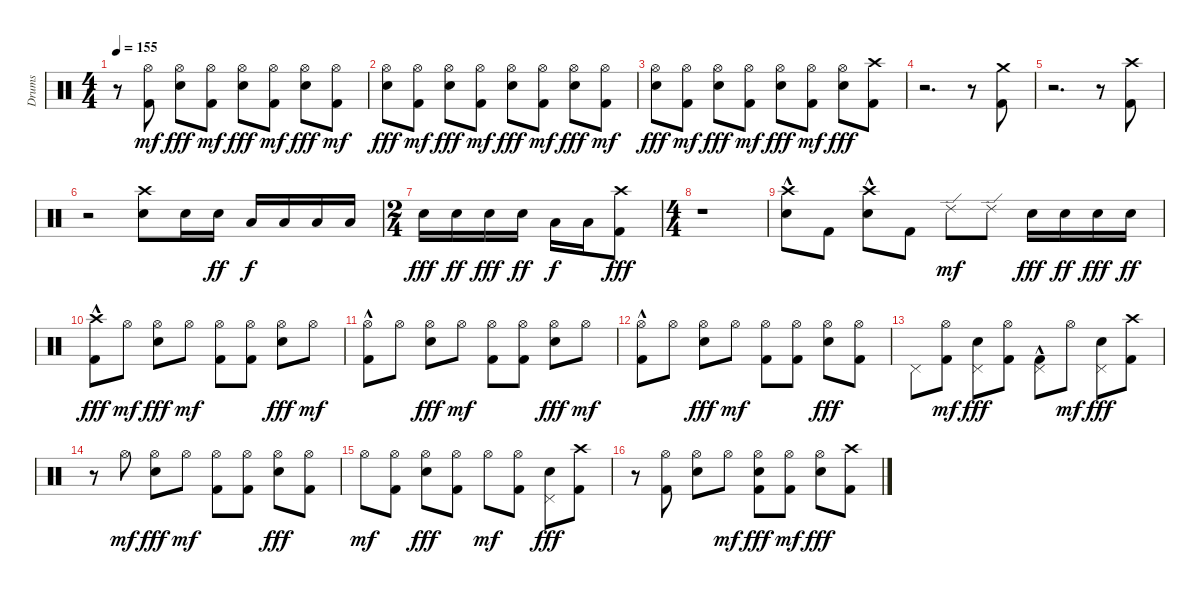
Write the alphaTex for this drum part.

\track ("Drums" "Drums") {instrument percussion}
\staff {score}
\articulation defaults
\ts (4 4)
\tempo 155
\clef neutral
\ks c
r.8{dy fff} ("Kick (hit) 2" "Hi-Hat (open)").8{dy mf} ("Snare (hit) 2" "Hi-Hat (open)").8{dy fff} ("Kick (hit) 2" "Hi-Hat (open)").8{dy mf} ("Snare (hit) 2" "Hi-Hat (open)").8{dy fff} ("Kick (hit) 2" "Hi-Hat (open)").8{dy mf} ("Snare (hit) 2" "Hi-Hat (open)").8{dy fff} ("Kick (hit) 2" "Hi-Hat (open)").8{dy mf} |
("Snare (hit) 2" "Hi-Hat (open)").8{dy fff} ("Kick (hit) 2" "Hi-Hat (open)").8{dy mf} ("Snare (hit) 2" "Hi-Hat (open)").8{dy fff} ("Kick (hit) 2" "Hi-Hat (open)").8{dy mf} ("Snare (hit) 2" "Hi-Hat (open)").8{dy fff} ("Kick (hit) 2" "Hi-Hat (open)").8{dy mf} ("Snare (hit) 2" "Hi-Hat (open)").8{dy fff} ("Kick (hit) 2" "Hi-Hat (open)").8{dy mf} |
("Snare (hit) 2" "Hi-Hat (open)").8{dy fff} ("Kick (hit) 2" "Hi-Hat (open)").8{dy mf} ("Snare (hit) 2" "Hi-Hat (open)").8{dy fff} ("Kick (hit) 2" "Hi-Hat (open)").8{dy mf} ("Snare (hit) 2" "Hi-Hat (open)").8{dy fff} ("Kick (hit) 2" "Hi-Hat (open)").8{dy mf} ("Snare (hit) 2" "Hi-Hat (open)").8{dy fff} ("Kick (hit) 2" "Crash high (hit)").8 |
r.2{d} r.8 ("Kick (hit) 2" "Crash medium (hit)").8 |
r.2{d} r.8 ("Kick (hit) 2" "Crash high (hit)").8 |
r.2 ("Snare (hit) 2" "Crash high (hit)").8 "Snare (hit) 2".16 "Snare (hit) 2".16{dy ff} "Low Tom (hit)".16{dy f} "Low Tom (hit)".16 "Low Tom (hit)".16 "Low Tom (hit)".16 |
\ts (2 4)
"Snare (hit) 2".16{dy fff} "Snare (hit) 2".16{dy ff} "Snare (hit) 2".16{dy fff} "Snare (hit) 2".16{dy ff} "Low Tom (hit)".16{dy f} "Low Tom (hit)".16 ("Kick (hit) 2" "Crash high (hit)").8{dy fff} |
\ts (4 4)
r.1 |
("Snare (hit) 2"{hac} "Crash high (hit)"{hac}).8 "Kick (hit) 2".8 ("Snare (hit) 2"{hac} "Crash high (hit)"{hac}).8 "Kick (hit) 2".8 "Ride (edge) 2".8{dy mf} "Ride (edge) 2".8 "Snare (hit) 2".16{dy fff} "Snare (hit) 2".16{dy ff} "Snare (hit) 2".16{dy fff} "Snare (hit) 2".16{dy ff} |
("Kick (hit) 2"{hac} "Crash high (hit)").8{dy fff} "Hi-Hat (open)".8{dy mf} ("Snare (hit) 2" "Hi-Hat (open)").8{dy fff} "Hi-Hat (open)".8{dy mf} ("Kick (hit) 2" "Hi-Hat (open)").8 ("Kick (hit) 2" "Hi-Hat (open)").8 ("Snare (hit) 2" "Hi-Hat (open)").8{dy fff} "Hi-Hat (open)".8{dy mf} |
("Kick (hit) 2"{hac} "Hi-Hat (open)").8 "Hi-Hat (open)".8 ("Snare (hit) 2" "Hi-Hat (open)").8{dy fff} "Hi-Hat (open)".8{dy mf} ("Kick (hit) 2" "Hi-Hat (open)").8 ("Kick (hit) 2" "Hi-Hat (open)").8 ("Snare (hit) 2" "Hi-Hat (open)").8{dy fff} "Hi-Hat (open)".8{dy mf} |
("Kick (hit) 2"{hac} "Hi-Hat (open)").8 "Hi-Hat (open)".8 ("Snare (hit) 2" "Hi-Hat (open)").8{dy fff} "Hi-Hat (open)".8{dy mf} ("Kick (hit) 2" "Hi-Hat (open)").8 ("Kick (hit) 2" "Hi-Hat (open)").8 ("Snare (hit) 2" "Hi-Hat (open)").8{dy fff} ("Hi-Hat (open)" "Kick (hit) 2").8 |
"Pedal Hi-Hat (hit)".8 ("Kick (hit) 2" "Hi-Hat (open)").8{dy mf} ("Snare (hit) 2" "Pedal Hi-Hat (hit)").8{dy fff} ("Hi-Hat (open)" "Kick (hit) 2").8 ("Pedal Hi-Hat (hit)" "Kick (hit) 2"{hac}).8 "Hi-Hat (open)".8{dy mf} ("Snare (hit) 2" "Pedal Hi-Hat (hit)").8{dy fff} ("Crash high (hit)" "Kick (hit) 2").8 |
r.8 "Hi-Hat (open)".8{dy mf} ("Snare (hit) 2" "Hi-Hat (open)").8{dy fff} "Hi-Hat (open)".8{dy mf} ("Kick (hit) 2" "Hi-Hat (open)").8 ("Kick (hit) 2" "Hi-Hat (open)").8 ("Snare (hit) 2" "Hi-Hat (open)").8{dy fff} ("Hi-Hat (open)" "Kick (hit) 2").8 |
"Hi-Hat (open)".8{dy mf} ("Kick (hit) 2" "Hi-Hat (open)").8 ("Snare (hit) 2" "Hi-Hat (open)").8{dy fff} ("Hi-Hat (open)" "Kick (hit) 2").8 "Hi-Hat (open)".8{dy mf} ("Hi-Hat (open)" "Kick (hit) 2").8 ("Snare (hit) 2" "Pedal Hi-Hat (hit)").8{dy fff} ("Crash high (hit)" "Kick (hit) 2").8 |
r.8 ("Hi-Hat (open)" "Kick (hit) 2").8 ("Snare (hit) 2" "Hi-Hat (open)").8 "Hi-Hat (open)".8{dy mf} ("Hi-Hat (open)" "Snare (hit) 2" "Kick (hit) 2").8{dy fff} ("Kick (hit) 2" "Hi-Hat (open)").8{dy mf} ("Snare (hit) 2" "Hi-Hat (open)").8{dy fff} ("Crash high (hit)" "Kick (hit) 2").8
